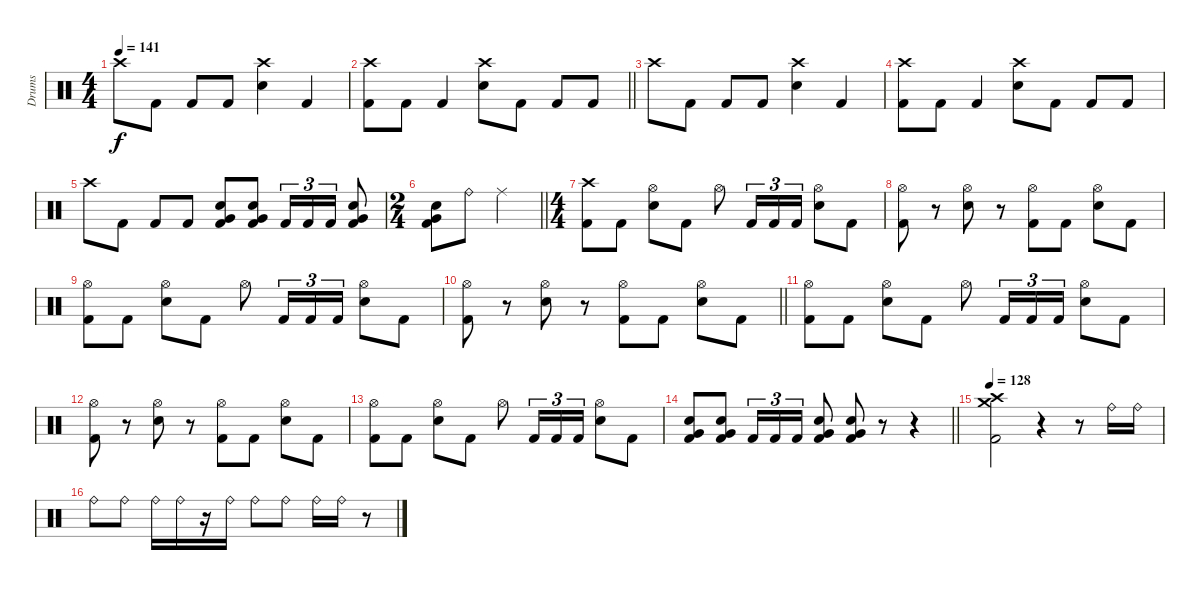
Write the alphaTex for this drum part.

\track ("Drums" "Drums") {instrument percussion}
\staff {score}
\articulation defaults
\ts (4 4)
\tempo 141
\clef neutral
\ks c "Crash high (hit)".8{dy f} "Kick (hit) 2".8 "Kick (hit) 2".8 "Kick (hit) 2".8
("Crash high (hit)" "Electric Snare (hit)").4 "Kick (hit) 2".4 |
\barLineRight lightlight
("Crash high (hit)" "Kick (hit) 2").8 "Kick (hit) 2".8 "Kick (hit) 2".4 ("Crash high (hit)" "Electric Snare (hit)").8 "Kick (hit) 2".8 "Kick (hit) 2".8 "Kick (hit) 2".8 |
"Crash high (hit)".8 "Kick (hit) 2".8 "Kick (hit) 2".8 "Kick (hit) 2".8 ("Crash high (hit)" "Electric Snare (hit)").4 "Kick (hit) 2".4 |
("Crash high (hit)" "Kick (hit) 2").8 "Kick (hit) 2".8 "Kick (hit) 2".4 ("Crash high (hit)" "Electric Snare (hit)").8 "Kick (hit) 2".8 "Kick (hit) 2".8 "Kick (hit) 2".8 |
"Crash high (hit)".8 "Kick (hit) 2".8 "Kick (hit) 2".8 "Kick (hit) 2".8 ("Electric Snare (hit)" "Very Low Tom (hit)" "Kick (hit) 2").8 ("Electric Snare (hit)" "Very Low Tom (hit)" "Kick (hit) 2").8 "Kick (hit) 2".16{tu (3 2)} "Kick (hit) 2".16{tu (3 2)} "Kick (hit) 2".16{tu (3 2)} ("Electric Snare (hit)" "Very Low Tom (hit)" "Kick (hit) 2").8 |
\ts (2 4)
\barLineRight lightlight
("Electric Snare (hit)" "Very Low Tom (hit)" "Kick (hit) 2").8 "Ride (bell)".8 "Ride (middle)".4 |
\ts (4 4)
("Crash high (hit)" "Kick (hit) 2").8 "Kick (hit) 2".8 ("Hi-Hat (open)" "Electric Snare (hit)").8 "Kick (hit) 2".8 "Hi-Hat (open)".8 "Kick (hit) 2".16{tu (3 2)} "Kick (hit) 2".16{tu (3 2)} "Kick (hit) 2".16{tu (3 2)} ("Hi-Hat (open)" "Electric Snare (hit)").8 "Kick (hit) 2".8 |
("Hi-Hat (open)" "Kick (hit) 2").8 r.8 ("Hi-Hat (open)" "Electric Snare (hit)").8 r.8 ("Hi-Hat (open)" "Kick (hit) 2").8 "Kick (hit) 2".8 ("Hi-Hat (open)" "Electric Snare (hit)").8 "Kick (hit) 2".8 |
("Hi-Hat (open)" "Kick (hit) 2").8 "Kick (hit) 2".8 ("Hi-Hat (open)" "Electric Snare (hit)").8 "Kick (hit) 2".8 "Hi-Hat (open)".8 "Kick (hit) 2".16{tu (3 2)} "Kick (hit) 2".16{tu (3 2)} "Kick (hit) 2".16{tu (3 2)} ("Hi-Hat (open)" "Electric Snare (hit)").8 "Kick (hit) 2".8 |
\barLineRight lightlight
("Hi-Hat (open)" "Kick (hit) 2").8 r.8 ("Hi-Hat (open)" "Electric Snare (hit)").8 r.8 ("Hi-Hat (open)" "Kick (hit) 2").8 "Kick (hit) 2".8 ("Hi-Hat (open)" "Electric Snare (hit)").8 "Kick (hit) 2".8 |
("Hi-Hat (open)" "Kick (hit) 2").8 "Kick (hit) 2".8 ("Hi-Hat (open)" "Electric Snare (hit)").8 "Kick (hit) 2".8 "Hi-Hat (open)".8 "Kick (hit) 2".16{tu (3 2)} "Kick (hit) 2".16{tu (3 2)} "Kick (hit) 2".16{tu (3 2)} ("Hi-Hat (open)" "Electric Snare (hit)").8 "Kick (hit) 2".8 |
("Hi-Hat (open)" "Kick (hit) 2").8 r.8 ("Hi-Hat (open)" "Electric Snare (hit)").8 r.8 ("Hi-Hat (open)" "Kick (hit) 2").8 "Kick (hit) 2".8 ("Hi-Hat (open)" "Electric Snare (hit)").8 "Kick (hit) 2".8 |
("Hi-Hat (open)" "Kick (hit) 2").8 "Kick (hit) 2".8 ("Hi-Hat (open)" "Electric Snare (hit)").8 "Kick (hit) 2".8 "Hi-Hat (open)".8 "Kick (hit) 2".16{tu (3 2)} "Kick (hit) 2".16{tu (3 2)} "Kick (hit) 2".16{tu (3 2)} ("Hi-Hat (open)" "Electric Snare (hit)").8 "Kick (hit) 2".8 |
\barLineRight lightlight
("Electric Snare (hit)" "Very Low Tom (hit)" "Kick (hit) 2").8 ("Electric Snare (hit)" "Very Low Tom (hit)" "Kick (hit) 2").8 "Kick (hit) 2".16{tu (3 2)} "Kick (hit) 2".16{tu (3 2)} "Kick (hit) 2".16{tu (3 2)} ("Electric Snare (hit)" "Very Low Tom (hit)" "Kick (hit) 2").8 ("Electric Snare (hit)" "Very Low Tom (hit)" "Kick (hit) 2").8 r.8 r.4 |
\tempo 128
("Crash high (hit)" "Crash medium (hit)" "Kick (hit) 2").2 r.4 r.8 "Ride (bell)".16 "Ride (bell)".16 |
"Ride (bell)".8 "Ride (bell)".8 "Ride (bell)".16 "Ride (bell)".16 r.16 "Ride (bell)".16 "Ride (bell)".8 "Ride (bell)".8 "Ride (bell)".16 "Ride (bell)".16 r.8
